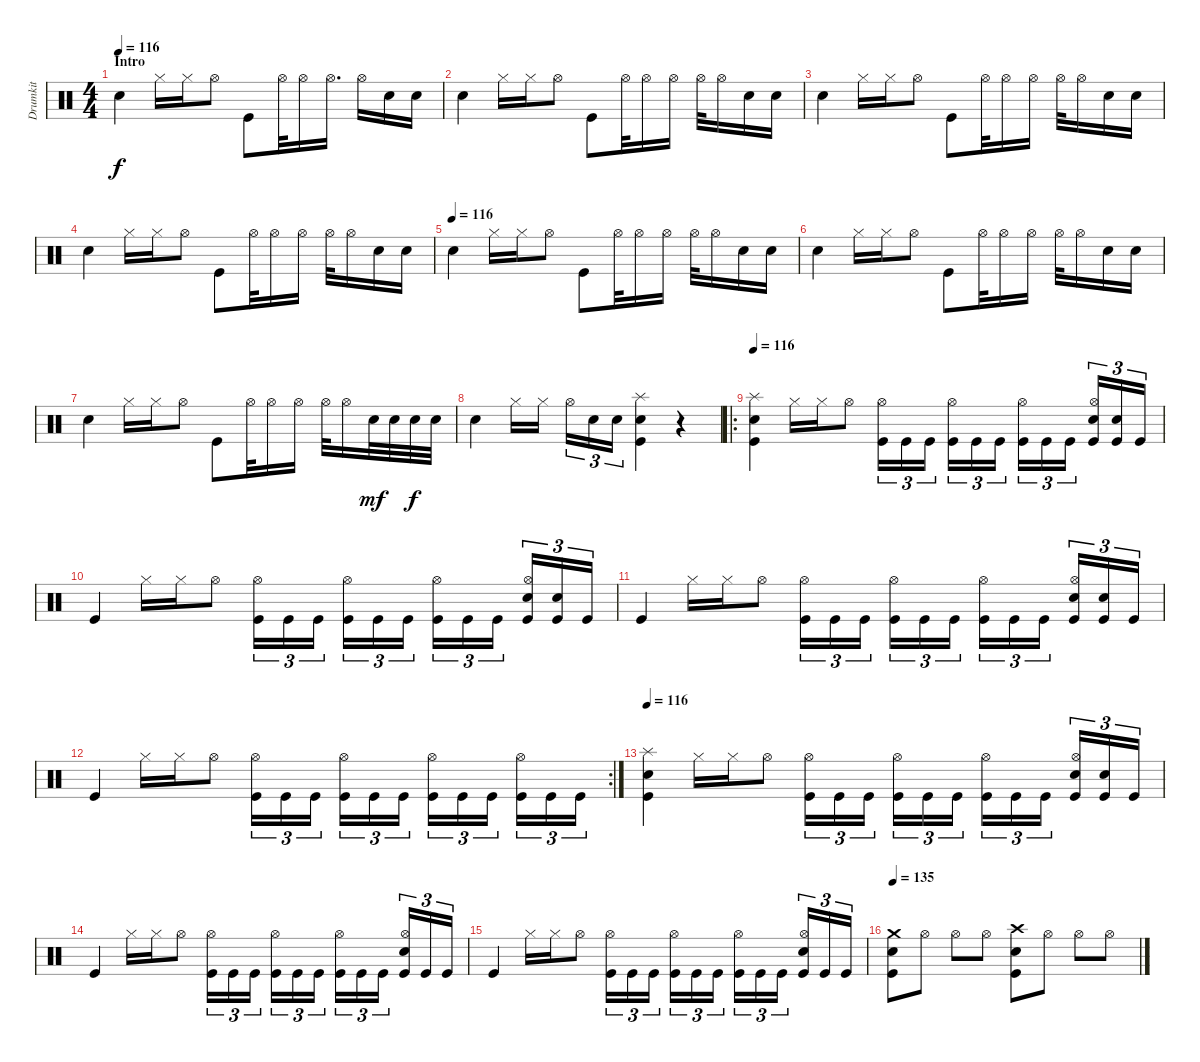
\track ("Drumkit" "Drumkit") {instrument percussion}
\staff {score}
\articulation defaults
\ts (4 4)
\section ("" "Intro")
\tempo 116
\clef neutral
\ks c "Snare (hit) 2".4{dy f} "Hi-Hat (closed)".16 "Hi-Hat (closed)".16 "Hi-Hat (open)".8 "Kick (hit)".8 "Hi-Hat (open)".32 "Hi-Hat (open)".16 "Hi-Hat (open)".16{d} "Hi-Hat (open)".16 "Snare (hit) 2".16 "Snare (hit) 2".16
|
"Snare (hit) 2".4 "Hi-Hat (closed)".16 "Hi-Hat (closed)".16 "Hi-Hat (open)".8 "Kick (hit)".8 "Hi-Hat (open)".32 "Hi-Hat (open)".16 "Hi-Hat (open)".16 "Hi-Hat (open)".32 "Hi-Hat (open)".16 "Snare (hit) 2".16 "Snare (hit) 2".16 |
"Snare (hit) 2".4 "Hi-Hat (closed)".16 "Hi-Hat (closed)".16 "Hi-Hat (open)".8 "Kick (hit)".8 "Hi-Hat (open)".32 "Hi-Hat (open)".16 "Hi-Hat (open)".16 "Hi-Hat (open)".32 "Hi-Hat (open)".16 "Snare (hit) 2".16 "Snare (hit) 2".16 |
"Snare (hit) 2".4 "Hi-Hat (closed)".16 "Hi-Hat (closed)".16 "Hi-Hat (open)".8 "Kick (hit)".8 "Hi-Hat (open)".32 "Hi-Hat (open)".16 "Hi-Hat (open)".16 "Hi-Hat (open)".32 "Hi-Hat (open)".16 "Snare (hit) 2".16 "Snare (hit) 2".16 |
\tempo (116)
"Snare (hit) 2".4 "Hi-Hat (closed)".16 "Hi-Hat (closed)".16 "Hi-Hat (open)".8 "Kick (hit)".8 "Hi-Hat (open)".32 "Hi-Hat (open)".16 "Hi-Hat (open)".16 "Hi-Hat (open)".32 "Hi-Hat (open)".16 "Snare (hit) 2".16 "Snare (hit) 2".16 |
"Snare (hit) 2".4 "Hi-Hat (closed)".16 "Hi-Hat (closed)".16 "Hi-Hat (open)".8 "Kick (hit)".8 "Hi-Hat (open)".32 "Hi-Hat (open)".16 "Hi-Hat (open)".16 "Hi-Hat (open)".32 "Hi-Hat (open)".16 "Snare (hit) 2".16 "Snare (hit) 2".16 |
"Snare (hit) 2".4 "Hi-Hat (closed)".16 "Hi-Hat (closed)".16 "Hi-Hat (open)".8 "Kick (hit)".8 "Hi-Hat (open)".32 "Hi-Hat (open)".16 "Hi-Hat (open)".16 "Hi-Hat (open)".32 "Hi-Hat (open)".16 "Snare (hit) 2".32{dy mf} "Snare (hit) 2".32 "Snare (hit) 2".32{dy f} "Snare (hit) 2".32 |
"Snare (hit) 2".4 "Hi-Hat (closed)".16 "Hi-Hat (closed)".16 "Hi-Hat (open)".16{tu (3 2)} "Snare (hit) 2".16{tu (3 2)} "Snare (hit) 2".16{tu (3 2)} ("Splash (hit)" "Snare (hit) 2" "Kick (hit)").4 r.4 |
\ro
\tempo 116
("Splash (hit)" "Snare (hit) 2" "Kick (hit)").4 "Hi-Hat (closed)".16 "Hi-Hat (closed)".16 "Hi-Hat (open)".8 ("Hi-Hat (open)" "Kick (hit)").16{tu (3 2)} "Kick (hit)".16{tu (3 2)} "Kick (hit)".16{tu (3 2)} ("Hi-Hat (open)" "Kick (hit)").16{tu (3 2)} "Kick (hit)".16{tu (3 2)} "Kick (hit)".16{tu (3 2)} ("Hi-Hat (open)" "Kick (hit)").16{tu (3 2)} "Kick (hit)".16{tu (3 2)} "Kick (hit)".16{tu (3 2)} ("Hi-Hat (open)" "Snare (hit) 2" "Kick (hit)").16{tu (3 2)} ("Snare (hit) 2" "Kick (hit)").16{tu (3 2)} "Kick (hit)".16{tu (3 2)} |
"Kick (hit)".4 "Hi-Hat (closed)".16 "Hi-Hat (closed)".16 "Hi-Hat (open)".8 ("Hi-Hat (open)" "Kick (hit)").16{tu (3 2)} "Kick (hit)".16{tu (3 2)} "Kick (hit)".16{tu (3 2)} ("Hi-Hat (open)" "Kick (hit)").16{tu (3 2)} "Kick (hit)".16{tu (3 2)} "Kick (hit)".16{tu (3 2)} ("Hi-Hat (open)" "Kick (hit)").16{tu (3 2)} "Kick (hit)".16{tu (3 2)} "Kick (hit)".16{tu (3 2)} ("Hi-Hat (open)" "Snare (hit) 2" "Kick (hit)").16{tu (3 2)} ("Snare (hit) 2" "Kick (hit)").16{tu (3 2)} "Kick (hit)".16{tu (3 2)} |
"Kick (hit)".4 "Hi-Hat (closed)".16 "Hi-Hat (closed)".16 "Hi-Hat (open)".8 ("Hi-Hat (open)" "Kick (hit)").16{tu (3 2)} "Kick (hit)".16{tu (3 2)} "Kick (hit)".16{tu (3 2)} ("Hi-Hat (open)" "Kick (hit)").16{tu (3 2)} "Kick (hit)".16{tu (3 2)} "Kick (hit)".16{tu (3 2)} ("Hi-Hat (open)" "Kick (hit)").16{tu (3 2)} "Kick (hit)".16{tu (3 2)} "Kick (hit)".16{tu (3 2)} ("Hi-Hat (open)" "Snare (hit) 2" "Kick (hit)").16{tu (3 2)} ("Snare (hit) 2" "Kick (hit)").16{tu (3 2)} "Kick (hit)".16{tu (3 2)} |
\rc 2 "Kick (hit)".4 "Hi-Hat (closed)".16 "Hi-Hat (closed)".16 "Hi-Hat (open)".8
("Hi-Hat (open)" "Kick (hit)").16{tu (3 2)} "Kick (hit)".16{tu (3 2)} "Kick (hit)".16{tu (3 2)} ("Hi-Hat (open)" "Kick (hit)").16{tu (3 2)} "Kick (hit)".16{tu (3 2)} "Kick (hit)".16{tu (3 2)} ("Hi-Hat (open)" "Kick (hit)").16{tu (3 2)} "Kick (hit)".16{tu (3 2)} "Kick (hit)".16{tu (3 2)} ("Hi-Hat (open)" "Kick (hit)").16{tu (3 2)} "Kick (hit)".16{tu (3 2)} "Kick (hit)".16{tu (3 2)} |
\tempo 116
("Splash (hit)" "Snare (hit) 2" "Kick (hit)").4 "Hi-Hat (closed)".16 "Hi-Hat (closed)".16 "Hi-Hat (open)".8 ("Hi-Hat (open)" "Kick (hit)").16{tu (3 2)} "Kick (hit)".16{tu (3 2)} "Kick (hit)".16{tu (3 2)} ("Hi-Hat (open)" "Kick (hit)").16{tu (3 2)} "Kick (hit)".16{tu (3 2)} "Kick (hit)".16{tu (3 2)} ("Hi-Hat (open)" "Kick (hit)").16{tu (3 2)} "Kick (hit)".16{tu (3 2)} "Kick (hit)".16{tu (3 2)} ("Hi-Hat (open)" "Snare (hit) 2" "Kick (hit)").16{tu (3 2)} ("Snare (hit) 2" "Kick (hit)").16{tu (3 2)} "Kick (hit)".16{tu (3 2)} |
"Kick (hit)".4 "Hi-Hat (closed)".16 "Hi-Hat (closed)".16 "Hi-Hat (open)".8 ("Hi-Hat (open)" "Kick (hit)").16{tu (3 2)} "Kick (hit)".16{tu (3 2)} "Kick (hit)".16{tu (3 2)} ("Hi-Hat (open)" "Kick (hit)").16{tu (3 2)} "Kick (hit)".16{tu (3 2)} "Kick (hit)".16{tu (3 2)} ("Hi-Hat (open)" "Kick (hit)").16{tu (3 2)} "Kick (hit)".16{tu (3 2)} "Kick (hit)".16{tu (3 2)} ("Hi-Hat (open)" "Snare (hit) 2" "Kick (hit)").16{tu (3 2)} "Kick (hit)".16{tu (3 2)} "Kick (hit)".16{tu (3 2)} |
"Kick (hit)".4 "Hi-Hat (closed)".16 "Hi-Hat (closed)".16 "Hi-Hat (open)".8 ("Hi-Hat (open)" "Kick (hit)").16{tu (3 2)} "Kick (hit)".16{tu (3 2)} "Kick (hit)".16{tu (3 2)} ("Hi-Hat (open)" "Kick (hit)").16{tu (3 2)} "Kick (hit)".16{tu (3 2)} "Kick (hit)".16{tu (3 2)} ("Hi-Hat (open)" "Kick (hit)").16{tu (3 2)} "Kick (hit)".16{tu (3 2)} "Kick (hit)".16{tu (3 2)} ("Hi-Hat (open)" "Snare (hit) 2" "Kick (hit)").16{tu (3 2)} "Kick (hit)".16{tu (3 2)} "Kick (hit)".16{tu (3 2)} |
\tempo 135
("Crash medium (hit)" "Snare (hit) 2" "Kick (hit)").8 "Hi-Hat (open)".8 "Hi-Hat (open)".8 "Hi-Hat (open)".8 ("Crash high (hit)" "Snare (hit) 2" "Kick (hit)").8 "Hi-Hat (open)".8 "Hi-Hat (open)".8 "Hi-Hat (open)".8
